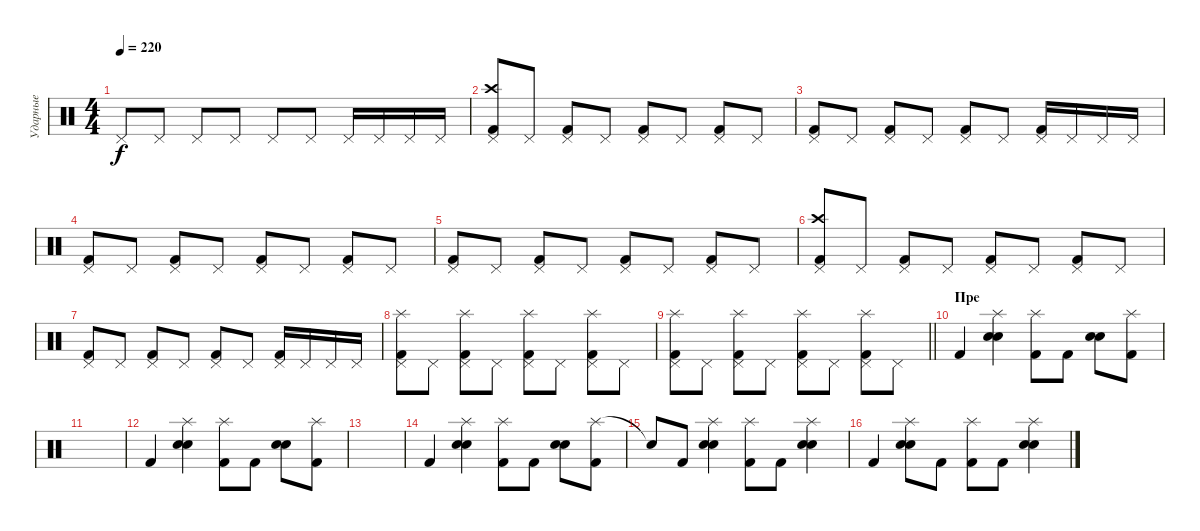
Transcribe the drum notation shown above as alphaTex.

\track ("Ударные" "Ударные") {instrument percussion}
\staff {score}
\articulation defaults
\ts (4 4)
\tempo 220
\clef neutral
\ks c "Pedal Hi-Hat (hit)".8{dy f} "Pedal Hi-Hat (hit)".8 "Pedal Hi-Hat (hit)".8 "Pedal Hi-Hat (hit)".8 "Pedal Hi-Hat (hit)".8 "Pedal Hi-Hat (hit)".8 "Pedal Hi-Hat (hit)".16 "Pedal Hi-Hat (hit)".16 "Pedal Hi-Hat (hit)".16 "Pedal Hi-Hat (hit)".16
|
("Crash high (hit)" "Pedal Hi-Hat (hit)" "Kick (hit) 2").8 "Pedal Hi-Hat (hit)".8 ("Pedal Hi-Hat (hit)" "Kick (hit) 2").8 "Pedal Hi-Hat (hit)".8 ("Pedal Hi-Hat (hit)" "Kick (hit) 2").8 "Pedal Hi-Hat (hit)".8 ("Pedal Hi-Hat (hit)" "Kick (hit) 2").8 "Pedal Hi-Hat (hit)".8 |
("Pedal Hi-Hat (hit)" "Kick (hit) 2").8 "Pedal Hi-Hat (hit)".8 ("Pedal Hi-Hat (hit)" "Kick (hit) 2").8 "Pedal Hi-Hat (hit)".8 ("Pedal Hi-Hat (hit)" "Kick (hit) 2").8 "Pedal Hi-Hat (hit)".8 ("Pedal Hi-Hat (hit)" "Kick (hit) 2").16 "Pedal Hi-Hat (hit)".16 "Pedal Hi-Hat (hit)".16 "Pedal Hi-Hat (hit)".16 |
("Pedal Hi-Hat (hit)" "Kick (hit) 2").8 "Pedal Hi-Hat (hit)".8 ("Pedal Hi-Hat (hit)" "Kick (hit) 2").8 "Pedal Hi-Hat (hit)".8 ("Pedal Hi-Hat (hit)" "Kick (hit) 2").8 "Pedal Hi-Hat (hit)".8 ("Pedal Hi-Hat (hit)" "Kick (hit) 2").8 "Pedal Hi-Hat (hit)".8 |
("Pedal Hi-Hat (hit)" "Kick (hit) 2").8 "Pedal Hi-Hat (hit)".8 ("Pedal Hi-Hat (hit)" "Kick (hit) 2").8 "Pedal Hi-Hat (hit)".8 ("Pedal Hi-Hat (hit)" "Kick (hit) 2").8 "Pedal Hi-Hat (hit)".8 ("Pedal Hi-Hat (hit)" "Kick (hit) 2").8 "Pedal Hi-Hat (hit)".8 |
("Crash high (hit)" "Pedal Hi-Hat (hit)" "Kick (hit) 2").8 "Pedal Hi-Hat (hit)".8 ("Pedal Hi-Hat (hit)" "Kick (hit) 2").8 "Pedal Hi-Hat (hit)".8 ("Pedal Hi-Hat (hit)" "Kick (hit) 2").8 "Pedal Hi-Hat (hit)".8 ("Pedal Hi-Hat (hit)" "Kick (hit) 2").8 "Pedal Hi-Hat (hit)".8 |
("Pedal Hi-Hat (hit)" "Kick (hit) 2").8 "Pedal Hi-Hat (hit)".8 ("Pedal Hi-Hat (hit)" "Kick (hit) 2").8 "Pedal Hi-Hat (hit)".8 ("Pedal Hi-Hat (hit)" "Kick (hit) 2").8 "Pedal Hi-Hat (hit)".8 ("Pedal Hi-Hat (hit)" "Kick (hit) 2").16 "Pedal Hi-Hat (hit)".16 "Pedal Hi-Hat (hit)".16 "Pedal Hi-Hat (hit)".16 |
("Splash (hit)" "Pedal Hi-Hat (hit)" "Kick (hit) 2").8 "Pedal Hi-Hat (hit)".8 ("Splash (hit)" "Pedal Hi-Hat (hit)" "Kick (hit) 2").8 "Pedal Hi-Hat (hit)".8 ("Splash (hit)" "Pedal Hi-Hat (hit)" "Kick (hit) 2").8 "Pedal Hi-Hat (hit)".8 ("Splash (hit)" "Pedal Hi-Hat (hit)" "Kick (hit) 2").8 "Pedal Hi-Hat (hit)".8 |
\barLineRight lightlight
("Splash (hit)" "Pedal Hi-Hat (hit)" "Kick (hit) 2").8 "Pedal Hi-Hat (hit)".8 ("Splash (hit)" "Pedal Hi-Hat (hit)" "Kick (hit) 2").8 "Pedal Hi-Hat (hit)".8 ("Splash (hit)" "Pedal Hi-Hat (hit)" "Kick (hit) 2").8 "Pedal Hi-Hat (hit)".8 ("Splash (hit)" "Pedal Hi-Hat (hit)" "Kick (hit) 2").8 "Pedal Hi-Hat (hit)".8 |
\section ("" "Пре")
"Kick (hit) 2".4 ("Splash (hit)" "Snare (hit) 2" "Electric Snare (hit)").4 ("Splash (hit)" "Kick (hit) 2").8 "Kick (hit) 2".8 ("Electric Snare (hit)" "Snare (hit) 2").8 ("Splash (hit)" "Kick (hit) 2").8 |
|
"Kick (hit) 2".4 ("Splash (hit)" "Snare (hit) 2" "Electric Snare (hit)").4 ("Splash (hit)" "Kick (hit) 2").8 "Kick (hit) 2".8 ("Electric Snare (hit)" "Snare (hit) 2").8 ("Splash (hit)" "Kick (hit) 2").8 |
|
"Kick (hit) 2".4 ("Splash (hit)" "Snare (hit) 2" "Electric Snare (hit)").4 ("Splash (hit)" "Kick (hit) 2").8 "Kick (hit) 2".8 ("Electric Snare (hit)" "Snare (hit) 2").8 ("Splash (hit)" "Kick (hit) 2").8 |
"Snare (hit)"{t}.8 "Kick (hit) 2".8 ("Splash (hit)" "Electric Snare (hit)" "Snare (hit) 2").4 ("Splash (hit)" "Kick (hit) 2").8 "Kick (hit) 2".8 ("Splash (hit)" "Electric Snare (hit)" "Snare (hit) 2").4 |
"Kick (hit) 2".4 ("Splash (hit)" "Snare (hit) 2" "Electric Snare (hit)").8 "Kick (hit) 2".8 ("Splash (hit)" "Kick (hit) 2").8 "Kick (hit) 2".8 ("Splash (hit)" "Electric Snare (hit)" "Snare (hit) 2").4
